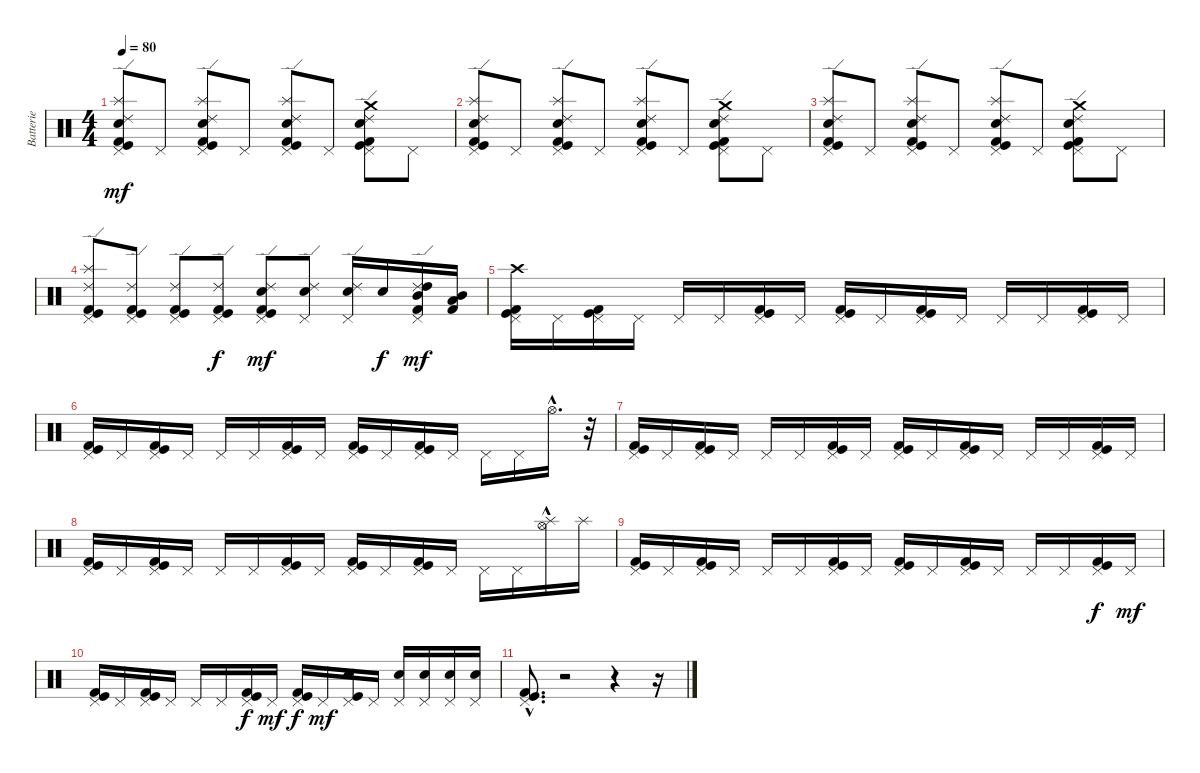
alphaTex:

\track ("Batterie" "Batterie") {instrument percussion}
\staff {score}
\articulation defaults
\ts (4 4)
\tempo 80
\clef neutral
\ks c
("Pedal Hi-Hat (hit)" "Ride (edge) 2" "Snare (hit) 2" "Splash (hit)" "Kick (hit)" "Kick (hit) 2").8{dy mf} "Pedal Hi-Hat (hit)".8 ("Pedal Hi-Hat (hit)" "Ride (edge) 2" "Snare (hit) 2" "Splash (hit)" "Kick (hit)" "Kick (hit) 2").8 "Pedal Hi-Hat (hit)".8 ("Pedal Hi-Hat (hit)" "Ride (edge) 2" "Snare (hit) 2" "Splash (hit)" "Kick (hit)" "Kick (hit) 2").8 "Pedal Hi-Hat (hit)".8 ("Pedal Hi-Hat (hit)" "Ride (edge) 2" "Snare (hit) 2" "Crash medium (hit)" "Kick (hit)" "Kick (hit) 2").8 "Pedal Hi-Hat (hit)".8 |
("Pedal Hi-Hat (hit)" "Ride (edge) 2" "Snare (hit) 2" "Splash (hit)" "Kick (hit)" "Kick (hit) 2").8 "Pedal Hi-Hat (hit)".8 ("Pedal Hi-Hat (hit)" "Ride (edge) 2" "Snare (hit) 2" "Splash (hit)" "Kick (hit)" "Kick (hit) 2").8 "Pedal Hi-Hat (hit)".8 ("Pedal Hi-Hat (hit)" "Ride (edge) 2" "Snare (hit) 2" "Splash (hit)" "Kick (hit)" "Kick (hit) 2").8 "Pedal Hi-Hat (hit)".8 ("Pedal Hi-Hat (hit)" "Ride (edge) 2" "Snare (hit) 2" "Crash medium (hit)" "Kick (hit)" "Kick (hit) 2").8 "Pedal Hi-Hat (hit)".8 |
("Pedal Hi-Hat (hit)" "Ride (edge) 2" "Snare (hit) 2" "Splash (hit)" "Kick (hit)" "Kick (hit) 2").8 "Pedal Hi-Hat (hit)".8 ("Pedal Hi-Hat (hit)" "Ride (edge) 2" "Snare (hit) 2" "Splash (hit)" "Kick (hit)" "Kick (hit) 2").8 "Pedal Hi-Hat (hit)".8 ("Pedal Hi-Hat (hit)" "Ride (edge) 2" "Snare (hit) 2" "Splash (hit)" "Kick (hit)" "Kick (hit) 2").8 "Pedal Hi-Hat (hit)".8 ("Pedal Hi-Hat (hit)" "Ride (edge) 2" "Snare (hit) 2" "Crash medium (hit)" "Kick (hit)" "Kick (hit) 2").8 "Pedal Hi-Hat (hit)".8 |
("Pedal Hi-Hat (hit)" "Ride (edge) 2" "Splash (hit)" "Kick (hit)" "Kick (hit) 2").8 ("Pedal Hi-Hat (hit)" "Ride (edge) 2" "Kick (hit)" "Kick (hit) 2").8 ("Pedal Hi-Hat (hit)" "Ride (edge) 2" "Kick (hit)" "Kick (hit) 2").8 ("Pedal Hi-Hat (hit)" "Ride (edge) 2" "Kick (hit)" "Kick (hit) 2").8{dy f} ("Pedal Hi-Hat (hit)" "Ride (edge) 2" "Snare (hit) 2" "Kick (hit)" "Kick (hit) 2").8{dy mf} ("Pedal Hi-Hat (hit)" "Ride (edge) 2" "Snare (hit) 2").8 ("Pedal Hi-Hat (hit)" "Ride (edge) 2" "Snare (hit) 2").16 "Snare (hit) 2".16{dy f} ("Pedal Hi-Hat (hit)" "Ride (edge) 2" "High Tom (hit)" "Mid Tom (hit)" "Kick (hit) 2").16{dy mf} ("Mid Tom (hit)" "Low Tom (hit)" "Kick (hit) 2").16 |
("Pedal Hi-Hat (hit)" "Crash high (hit)" "Kick (hit)" "Kick (hit) 2").16 "Pedal Hi-Hat (hit)".16 ("Pedal Hi-Hat (hit)" "Kick (hit)" "Kick (hit) 2").16 "Pedal Hi-Hat (hit)".16 "Pedal Hi-Hat (hit)".16 "Pedal Hi-Hat (hit)".16 ("Pedal Hi-Hat (hit)" "Kick (hit)" "Kick (hit) 2").16 "Pedal Hi-Hat (hit)".16 ("Pedal Hi-Hat (hit)" "Kick (hit)" "Kick (hit) 2").16 "Pedal Hi-Hat (hit)".16 ("Pedal Hi-Hat (hit)" "Kick (hit)" "Kick (hit) 2").16 "Pedal Hi-Hat (hit)".16 "Pedal Hi-Hat (hit)".16 "Pedal Hi-Hat (hit)".16 ("Pedal Hi-Hat (hit)" "Kick (hit)" "Kick (hit) 2").16 "Pedal Hi-Hat (hit)".16 |
("Pedal Hi-Hat (hit)" "Kick (hit)" "Kick (hit) 2").16 "Pedal Hi-Hat (hit)".16 ("Pedal Hi-Hat (hit)" "Kick (hit)" "Kick (hit) 2").16 "Pedal Hi-Hat (hit)".16 "Pedal Hi-Hat (hit)".16 "Pedal Hi-Hat (hit)".16 ("Pedal Hi-Hat (hit)" "Kick (hit)" "Kick (hit) 2").16 "Pedal Hi-Hat (hit)".16 ("Pedal Hi-Hat (hit)" "Kick (hit)" "Kick (hit) 2").16 "Pedal Hi-Hat (hit)".16 ("Pedal Hi-Hat (hit)" "Kick (hit)" "Kick (hit) 2").16 "Pedal Hi-Hat (hit)".16 "Pedal Hi-Hat (hit)".16 "Pedal Hi-Hat (hit)".16 "Hi-Hat (open)"{hac}.16{d} r.32 |
("Pedal Hi-Hat (hit)" "Kick (hit)" "Kick (hit) 2").16 "Pedal Hi-Hat (hit)".16 ("Pedal Hi-Hat (hit)" "Kick (hit)" "Kick (hit) 2").16 "Pedal Hi-Hat (hit)".16 "Pedal Hi-Hat (hit)".16 "Pedal Hi-Hat (hit)".16 ("Pedal Hi-Hat (hit)" "Kick (hit)" "Kick (hit) 2").16 "Pedal Hi-Hat (hit)".16 ("Pedal Hi-Hat (hit)" "Kick (hit)" "Kick (hit) 2").16 "Pedal Hi-Hat (hit)".16 ("Pedal Hi-Hat (hit)" "Kick (hit)" "Kick (hit) 2").16 "Pedal Hi-Hat (hit)".16 "Pedal Hi-Hat (hit)".16 "Pedal Hi-Hat (hit)".16 ("Pedal Hi-Hat (hit)" "Kick (hit)" "Kick (hit) 2").16 "Pedal Hi-Hat (hit)".16 |
("Pedal Hi-Hat (hit)" "Kick (hit)" "Kick (hit) 2").16 "Pedal Hi-Hat (hit)".16 ("Pedal Hi-Hat (hit)" "Kick (hit)" "Kick (hit) 2").16 "Pedal Hi-Hat (hit)".16 "Pedal Hi-Hat (hit)".16 "Pedal Hi-Hat (hit)".16 ("Pedal Hi-Hat (hit)" "Kick (hit)" "Kick (hit) 2").16 "Pedal Hi-Hat (hit)".16 ("Pedal Hi-Hat (hit)" "Kick (hit)" "Kick (hit) 2").16 "Pedal Hi-Hat (hit)".16 ("Pedal Hi-Hat (hit)" "Kick (hit)" "Kick (hit) 2").16 "Pedal Hi-Hat (hit)".16 "Pedal Hi-Hat (hit)".16 "Pedal Hi-Hat (hit)".16 ("Hi-Hat (open)"{hac} "Splash (hit)").16 "Splash (hit)".16 |
("Pedal Hi-Hat (hit)" "Kick (hit)" "Kick (hit) 2").16 "Pedal Hi-Hat (hit)".16 ("Pedal Hi-Hat (hit)" "Kick (hit)" "Kick (hit) 2").16 "Pedal Hi-Hat (hit)".16 "Pedal Hi-Hat (hit)".16 "Pedal Hi-Hat (hit)".16 ("Pedal Hi-Hat (hit)" "Kick (hit)" "Kick (hit) 2").16 "Pedal Hi-Hat (hit)".16 ("Pedal Hi-Hat (hit)" "Kick (hit)" "Kick (hit) 2").16 "Pedal Hi-Hat (hit)".16 ("Pedal Hi-Hat (hit)" "Kick (hit)" "Kick (hit) 2").16 "Pedal Hi-Hat (hit)".16 "Pedal Hi-Hat (hit)".16 "Pedal Hi-Hat (hit)".16 ("Pedal Hi-Hat (hit)" "Kick (hit)" "Kick (hit) 2").16{dy f} "Pedal Hi-Hat (hit)".16{dy mf} |
("Pedal Hi-Hat (hit)" "Kick (hit)" "Kick (hit) 2").16 "Pedal Hi-Hat (hit)".16 ("Pedal Hi-Hat (hit)" "Kick (hit)" "Kick (hit) 2").16 "Pedal Hi-Hat (hit)".16 "Pedal Hi-Hat (hit)".16 "Pedal Hi-Hat (hit)".16 ("Pedal Hi-Hat (hit)" "Kick (hit)" "Kick (hit) 2").16{dy f} "Pedal Hi-Hat (hit)".16{dy mf} ("Pedal Hi-Hat (hit)" "Kick (hit)" "Kick (hit) 2").16{dy f} "Pedal Hi-Hat (hit)".16{dy mf} ("Pedal Hi-Hat (hit)" "Snare (hit) 2" "Kick (hit)").16 "Pedal Hi-Hat (hit)".16 ("Pedal Hi-Hat (hit)" "Snare (hit) 2").16 ("Pedal Hi-Hat (hit)" "Snare (hit) 2").16 ("Pedal Hi-Hat (hit)" "Snare (hit) 2").16 ("Pedal Hi-Hat (hit)" "Snare (hit) 2").16 |
("Pedal Hi-Hat (hit)"{hac} "Kick (hit)"{hac} "Kick (hit) 2"{hac}).8{d} r.2 r.4 r.16
